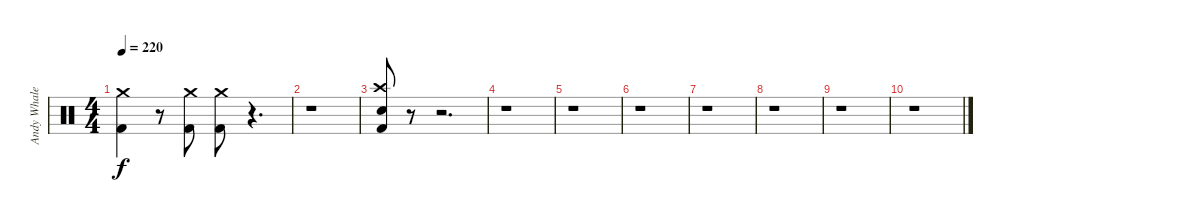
\track ("Andy Whale" "Andy Whale") {instrument percussion}
\staff {score}
\articulation defaults
\ts (4 4)
\tempo 220
\clef neutral
\ks c
("Crash medium (hit)" "Kick (hit) 2").4{dy f} r.8 ("Crash medium (hit)" "Kick (hit) 2").8 ("Crash medium (hit)" "Kick (hit) 2").8 r.4{d} |
r.1 |
("Crash high (hit)" "Snare (hit) 2" "Kick (hit) 2").8 r.8 r.2{d} |
r.1 |
r.1 |
r.1 |
r.1 |
r.1 |
r.1 |
r.1
